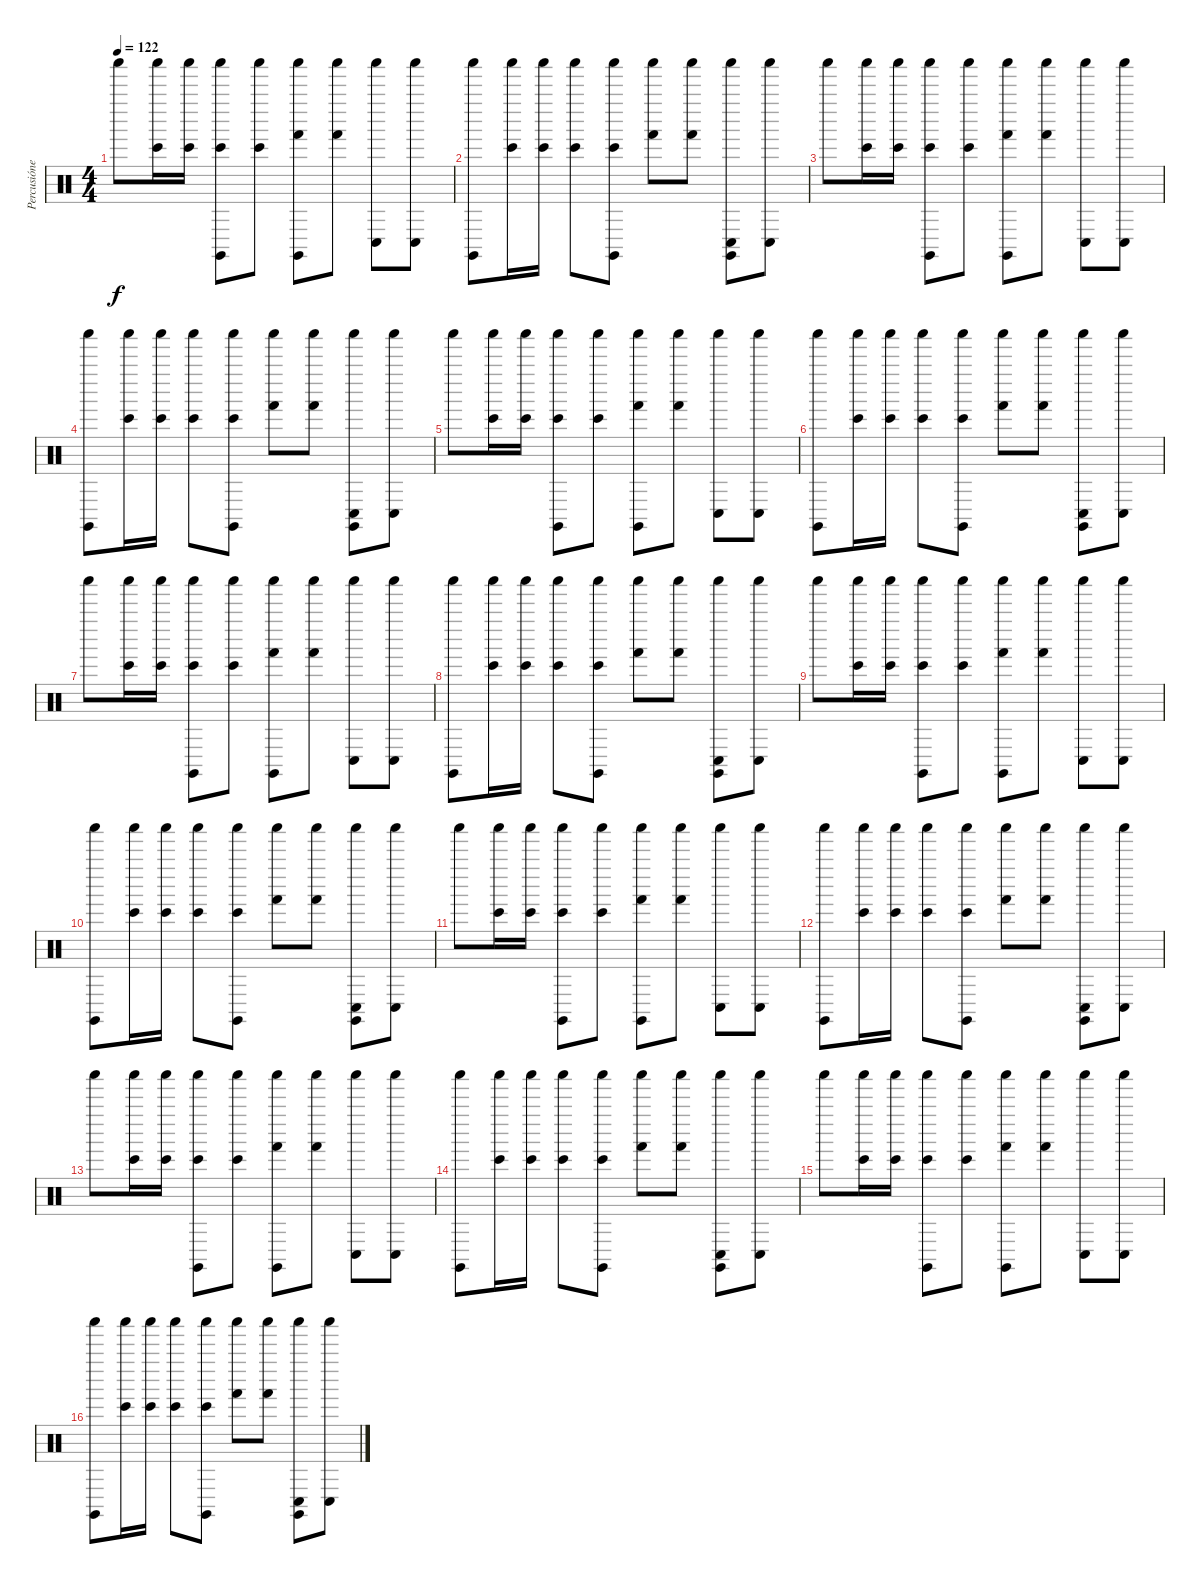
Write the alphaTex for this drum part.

\track ("Percusiónes" "Percusióne") {instrument percussion}
\staff {score}
\articulation defaults
\ts (4 4)
\tempo 122
\clef neutral
\ks c "Shaker (hit)".8{dy f}
("Bongo High (hit)" "Shaker (hit)").16 ("Bongo High (hit)" "Shaker (hit)").16 ("Bongo High (hit)" "Shaker (hit)" "Claves (hit)").8 ("Bongo High (hit)" "Shaker (hit)").8 ("Hand (hit)" "Shaker (hit)" "Claves (hit)").8 ("Hand (hit)" "Shaker (hit)").8 ("Conga low (hit)" "Shaker (hit)").8 ("Conga low (hit)" "Shaker (hit)").8 |
("Shaker (hit)" "Claves (hit)").8 ("Bongo High (hit)" "Shaker (hit)").16 ("Bongo High (hit)" "Shaker (hit)").16 ("Bongo High (hit)" "Shaker (hit)").8 ("Bongo High (hit)" "Shaker (hit)" "Claves (hit)").8 ("Hand (hit)" "Shaker (hit)").8 ("Hand (hit)" "Shaker (hit)").8 ("Conga low (hit)" "Shaker (hit)" "Claves (hit)").8 ("Conga low (hit)" "Shaker (hit)").8 |
"Shaker (hit)".8 ("Bongo High (hit)" "Shaker (hit)").16 ("Bongo High (hit)" "Shaker (hit)").16 ("Bongo High (hit)" "Shaker (hit)" "Claves (hit)").8 ("Bongo High (hit)" "Shaker (hit)").8 ("Hand (hit)" "Shaker (hit)" "Claves (hit)").8 ("Hand (hit)" "Shaker (hit)").8 ("Conga low (hit)" "Shaker (hit)").8 ("Conga low (hit)" "Shaker (hit)").8 |
("Shaker (hit)" "Claves (hit)").8 ("Bongo High (hit)" "Shaker (hit)").16 ("Bongo High (hit)" "Shaker (hit)").16 ("Bongo High (hit)" "Shaker (hit)").8 ("Bongo High (hit)" "Shaker (hit)" "Claves (hit)").8 ("Hand (hit)" "Shaker (hit)").8 ("Hand (hit)" "Shaker (hit)").8 ("Conga low (hit)" "Shaker (hit)" "Claves (hit)").8 ("Conga low (hit)" "Shaker (hit)").8 |
"Shaker (hit)".8 ("Bongo High (hit)" "Shaker (hit)").16 ("Bongo High (hit)" "Shaker (hit)").16 ("Bongo High (hit)" "Shaker (hit)" "Claves (hit)").8 ("Bongo High (hit)" "Shaker (hit)").8 ("Hand (hit)" "Shaker (hit)" "Claves (hit)").8 ("Hand (hit)" "Shaker (hit)").8 ("Conga low (hit)" "Shaker (hit)").8 ("Conga low (hit)" "Shaker (hit)").8 |
("Shaker (hit)" "Claves (hit)").8 ("Bongo High (hit)" "Shaker (hit)").16 ("Bongo High (hit)" "Shaker (hit)").16 ("Bongo High (hit)" "Shaker (hit)").8 ("Bongo High (hit)" "Shaker (hit)" "Claves (hit)").8 ("Hand (hit)" "Shaker (hit)").8 ("Hand (hit)" "Shaker (hit)").8 ("Conga low (hit)" "Shaker (hit)" "Claves (hit)").8 ("Conga low (hit)" "Shaker (hit)").8 |
"Shaker (hit)".8 ("Bongo High (hit)" "Shaker (hit)").16 ("Bongo High (hit)" "Shaker (hit)").16 ("Bongo High (hit)" "Shaker (hit)" "Claves (hit)").8 ("Bongo High (hit)" "Shaker (hit)").8 ("Hand (hit)" "Shaker (hit)" "Claves (hit)").8 ("Hand (hit)" "Shaker (hit)").8 ("Conga low (hit)" "Shaker (hit)").8 ("Conga low (hit)" "Shaker (hit)").8 |
("Shaker (hit)" "Claves (hit)").8 ("Bongo High (hit)" "Shaker (hit)").16 ("Bongo High (hit)" "Shaker (hit)").16 ("Bongo High (hit)" "Shaker (hit)").8 ("Bongo High (hit)" "Shaker (hit)" "Claves (hit)").8 ("Hand (hit)" "Shaker (hit)").8 ("Hand (hit)" "Shaker (hit)").8 ("Conga low (hit)" "Shaker (hit)" "Claves (hit)").8 ("Conga low (hit)" "Shaker (hit)").8 |
"Shaker (hit)".8 ("Bongo High (hit)" "Shaker (hit)").16 ("Bongo High (hit)" "Shaker (hit)").16 ("Bongo High (hit)" "Shaker (hit)" "Claves (hit)").8 ("Bongo High (hit)" "Shaker (hit)").8 ("Hand (hit)" "Shaker (hit)" "Claves (hit)").8 ("Hand (hit)" "Shaker (hit)").8 ("Conga low (hit)" "Shaker (hit)").8 ("Conga low (hit)" "Shaker (hit)").8 |
("Shaker (hit)" "Claves (hit)").8 ("Bongo High (hit)" "Shaker (hit)").16 ("Bongo High (hit)" "Shaker (hit)").16 ("Bongo High (hit)" "Shaker (hit)").8 ("Bongo High (hit)" "Shaker (hit)" "Claves (hit)").8 ("Hand (hit)" "Shaker (hit)").8 ("Hand (hit)" "Shaker (hit)").8 ("Conga low (hit)" "Shaker (hit)" "Claves (hit)").8 ("Conga low (hit)" "Shaker (hit)").8 |
"Shaker (hit)".8 ("Bongo High (hit)" "Shaker (hit)").16 ("Bongo High (hit)" "Shaker (hit)").16 ("Bongo High (hit)" "Shaker (hit)" "Claves (hit)").8 ("Bongo High (hit)" "Shaker (hit)").8 ("Hand (hit)" "Shaker (hit)" "Claves (hit)").8 ("Hand (hit)" "Shaker (hit)").8 ("Conga low (hit)" "Shaker (hit)").8 ("Conga low (hit)" "Shaker (hit)").8 |
("Shaker (hit)" "Claves (hit)").8 ("Bongo High (hit)" "Shaker (hit)").16 ("Bongo High (hit)" "Shaker (hit)").16 ("Bongo High (hit)" "Shaker (hit)").8 ("Bongo High (hit)" "Shaker (hit)" "Claves (hit)").8 ("Hand (hit)" "Shaker (hit)").8 ("Hand (hit)" "Shaker (hit)").8 ("Conga low (hit)" "Shaker (hit)" "Claves (hit)").8 ("Conga low (hit)" "Shaker (hit)").8 |
"Shaker (hit)".8 ("Bongo High (hit)" "Shaker (hit)").16 ("Bongo High (hit)" "Shaker (hit)").16 ("Bongo High (hit)" "Shaker (hit)" "Claves (hit)").8 ("Bongo High (hit)" "Shaker (hit)").8 ("Hand (hit)" "Shaker (hit)" "Claves (hit)").8 ("Hand (hit)" "Shaker (hit)").8 ("Conga low (hit)" "Shaker (hit)").8 ("Conga low (hit)" "Shaker (hit)").8 |
("Shaker (hit)" "Claves (hit)").8 ("Bongo High (hit)" "Shaker (hit)").16 ("Bongo High (hit)" "Shaker (hit)").16 ("Bongo High (hit)" "Shaker (hit)").8 ("Bongo High (hit)" "Shaker (hit)" "Claves (hit)").8 ("Hand (hit)" "Shaker (hit)").8 ("Hand (hit)" "Shaker (hit)").8 ("Conga low (hit)" "Shaker (hit)" "Claves (hit)").8 ("Conga low (hit)" "Shaker (hit)").8 |
"Shaker (hit)".8 ("Bongo High (hit)" "Shaker (hit)").16 ("Bongo High (hit)" "Shaker (hit)").16 ("Bongo High (hit)" "Shaker (hit)" "Claves (hit)").8 ("Bongo High (hit)" "Shaker (hit)").8 ("Hand (hit)" "Shaker (hit)" "Claves (hit)").8 ("Hand (hit)" "Shaker (hit)").8 ("Conga low (hit)" "Shaker (hit)").8 ("Conga low (hit)" "Shaker (hit)").8 |
("Shaker (hit)" "Claves (hit)").8 ("Bongo High (hit)" "Shaker (hit)").16 ("Bongo High (hit)" "Shaker (hit)").16 ("Bongo High (hit)" "Shaker (hit)").8 ("Bongo High (hit)" "Shaker (hit)" "Claves (hit)").8 ("Hand (hit)" "Shaker (hit)").8 ("Hand (hit)" "Shaker (hit)").8 ("Conga low (hit)" "Shaker (hit)" "Claves (hit)").8 ("Conga low (hit)" "Shaker (hit)").8
